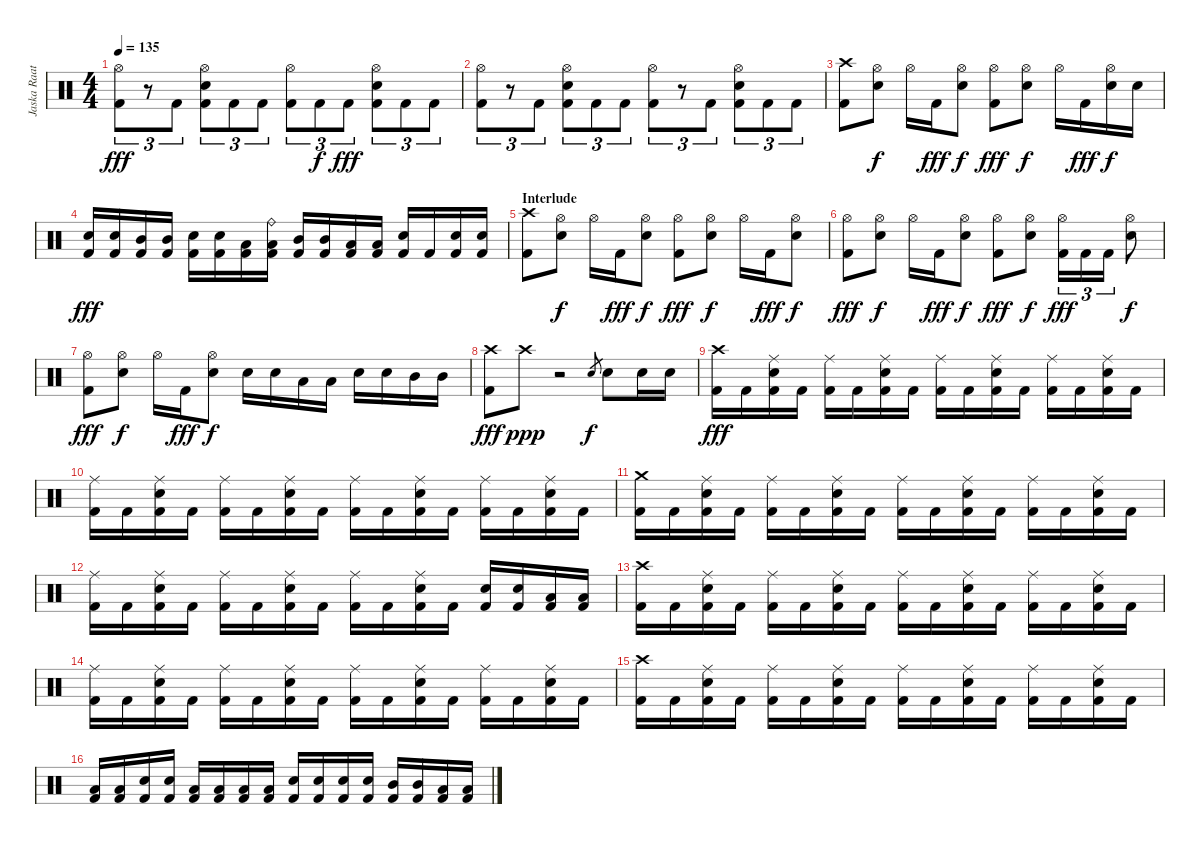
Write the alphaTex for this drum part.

\track ("Jaska Raatikainen" "Jaska Raat") {instrument percussion}
\staff {score}
\articulation defaults
\ts (4 4)
\tempo 135
\clef neutral
\ks c
("Hi-Hat (open)" "Kick (hit) 2").8{tu (3 2) dy fff} r.8{tu (3 2)} "Kick (hit) 2".8{tu (3 2)} ("Hi-Hat (open)" "Electric Snare (hit)" "Kick (hit) 2").8{tu (3 2)} "Kick (hit) 2".8{tu (3 2)} "Kick (hit) 2".8{tu (3 2)} ("Hi-Hat (open)" "Kick (hit) 2").8{tu (3 2)} "Kick (hit) 2".8{tu (3 2) dy f} "Kick (hit) 2".8{tu (3 2) dy fff} ("Hi-Hat (open)" "Electric Snare (hit)" "Kick (hit) 2").8{tu (3 2)} "Kick (hit) 2".8{tu (3 2)} "Kick (hit) 2".8{tu (3 2)} |
("Hi-Hat (open)" "Kick (hit) 2").8{tu (3 2)} r.8{tu (3 2)} "Kick (hit) 2".8{tu (3 2)} ("Hi-Hat (open)" "Electric Snare (hit)" "Kick (hit) 2").8{tu (3 2)} "Kick (hit) 2".8{tu (3 2)} "Kick (hit) 2".8{tu (3 2)} ("Hi-Hat (open)" "Kick (hit) 2").8{tu (3 2)} r.8{tu (3 2)} "Kick (hit) 2".8{tu (3 2)} ("Hi-Hat (open)" "Electric Snare (hit)" "Kick (hit) 2").8{tu (3 2)} "Kick (hit) 2".8{tu (3 2)} "Kick (hit) 2".8{tu (3 2)} |
("Crash high (hit)" "Kick (hit) 2").8 ("Hi-Hat (open)" "Electric Snare (hit)").8{dy f} "Hi-Hat (open)".16 "Kick (hit) 2".16{dy fff} ("Hi-Hat (open)" "Electric Snare (hit)").8{dy f} ("Hi-Hat (open)" "Kick (hit) 2").8{dy fff} ("Hi-Hat (open)" "Electric Snare (hit)").8{dy f} "Hi-Hat (open)".16 "Kick (hit) 2".16{dy fff} ("Hi-Hat (open)" "Electric Snare (hit)").16{dy f} "Electric Snare (hit)".16 |
("Electric Snare (hit)" "Kick (hit) 2").16{dy fff} ("Electric Snare (hit)" "Kick (hit) 2").16 ("Mid Tom (hit)" "Kick (hit) 2").16 ("Mid Tom (hit)" "Kick (hit) 2").16 ("Electric Snare (hit)" "Kick (hit) 2").16 ("Electric Snare (hit)" "Kick (hit) 2").16 ("Low Tom (hit)" "Kick (hit) 2").16 ("Ride (bell)" "Low Tom (hit)" "Kick (hit) 2").16 ("Mid Tom (hit)" "Kick (hit) 2").16 ("Mid Tom (hit)" "Kick (hit) 2").16 ("Low Tom (hit)" "Kick (hit) 2").16 ("Low Tom (hit)" "Kick (hit) 2").16 ("Electric Snare (hit)" "Kick (hit) 2").16 "Kick (hit) 2".16 ("Electric Snare (hit)" "Kick (hit) 2").16 ("Electric Snare (hit)" "Kick (hit) 2").16 |
\section ("" "Interlude")
("Crash high (hit)" "Kick (hit) 2").8 ("Hi-Hat (open)" "Electric Snare (hit)").8{dy f} "Hi-Hat (open)".16 "Kick (hit) 2".16{dy fff} ("Hi-Hat (open)" "Electric Snare (hit)").8{dy f} ("Hi-Hat (open)" "Kick (hit) 2").8{dy fff} ("Hi-Hat (open)" "Electric Snare (hit)").8{dy f} "Hi-Hat (open)".16 "Kick (hit) 2".16{dy fff} ("Hi-Hat (open)" "Electric Snare (hit)").8{dy f} |
("Hi-Hat (open)" "Kick (hit) 2").8{dy fff} ("Hi-Hat (open)" "Electric Snare (hit)").8{dy f} "Hi-Hat (open)".16 "Kick (hit) 2".16{dy fff} ("Hi-Hat (open)" "Electric Snare (hit)").8{dy f} ("Hi-Hat (open)" "Kick (hit) 2").8{dy fff} ("Hi-Hat (open)" "Electric Snare (hit)").8{dy f} ("Hi-Hat (open)" "Kick (hit) 2").16{tu (3 2) dy fff} "Kick (hit) 2".16{tu (3 2)} "Kick (hit) 2".16{tu (3 2)} ("Hi-Hat (open)" "Electric Snare (hit)").8{dy f} |
("Hi-Hat (open)" "Kick (hit) 2").8{dy fff} ("Hi-Hat (open)" "Electric Snare (hit)").8{dy f} "Hi-Hat (open)".16 "Kick (hit) 2".16{dy fff} ("Hi-Hat (open)" "Electric Snare (hit)").8{dy f} "Electric Snare (hit)".16 "Electric Snare (hit)".16 "Low Tom (hit)".16 "Low Tom (hit)".16 "Electric Snare (hit)".16 "Electric Snare (hit)".16 "Mid Tom (hit)".16 "Mid Tom (hit)".16 |
("Crash high (hit)" "Kick (hit) 2").8{dy fff} "Crash high (hit)".8{dy ppp} r.2 "Electric Snare (hit)".8{gr dy f} "Electric Snare (hit)".8 "Electric Snare (hit)".16 "Electric Snare (hit)".16 |
("Crash high (hit)" "Kick (hit) 2").16{dy fff} "Kick (hit) 2".16 ("Ride (middle)" "Electric Snare (hit)" "Kick (hit) 2").16 "Kick (hit) 2".16 ("Ride (middle)" "Kick (hit) 2").16 "Kick (hit) 2".16 ("Ride (middle)" "Electric Snare (hit)" "Kick (hit) 2").16 "Kick (hit) 2".16 ("Ride (middle)" "Kick (hit) 2").16 "Kick (hit) 2".16 ("Ride (middle)" "Electric Snare (hit)" "Kick (hit) 2").16 "Kick (hit) 2".16 ("Ride (middle)" "Kick (hit) 2").16 "Kick (hit) 2".16 ("Ride (middle)" "Electric Snare (hit)" "Kick (hit) 2").16 "Kick (hit) 2".16 |
("Ride (middle)" "Kick (hit) 2").16 "Kick (hit) 2".16 ("Ride (middle)" "Electric Snare (hit)" "Kick (hit) 2").16 "Kick (hit) 2".16 ("Ride (middle)" "Kick (hit) 2").16 "Kick (hit) 2".16 ("Ride (middle)" "Electric Snare (hit)" "Kick (hit) 2").16 "Kick (hit) 2".16 ("Ride (middle)" "Kick (hit) 2").16 "Kick (hit) 2".16 ("Ride (middle)" "Electric Snare (hit)" "Kick (hit) 2").16 "Kick (hit) 2".16 ("Ride (middle)" "Kick (hit) 2").16 "Kick (hit) 2".16 ("Ride (middle)" "Electric Snare (hit)" "Kick (hit) 2").16 "Kick (hit) 2".16 |
("Crash medium (hit)" "Kick (hit) 2").16 "Kick (hit) 2".16 ("Ride (middle)" "Electric Snare (hit)" "Kick (hit) 2").16 "Kick (hit) 2".16 ("Ride (middle)" "Kick (hit) 2").16 "Kick (hit) 2".16 ("Ride (middle)" "Electric Snare (hit)" "Kick (hit) 2").16 "Kick (hit) 2".16 ("Ride (middle)" "Kick (hit) 2").16 "Kick (hit) 2".16 ("Ride (middle)" "Electric Snare (hit)" "Kick (hit) 2").16 "Kick (hit) 2".16 ("Ride (middle)" "Kick (hit) 2").16 "Kick (hit) 2".16 ("Ride (middle)" "Electric Snare (hit)" "Kick (hit) 2").16 "Kick (hit) 2".16 |
("Ride (middle)" "Kick (hit) 2").16 "Kick (hit) 2".16 ("Ride (middle)" "Electric Snare (hit)" "Kick (hit) 2").16 "Kick (hit) 2".16 ("Ride (middle)" "Kick (hit) 2").16 "Kick (hit) 2".16 ("Ride (middle)" "Electric Snare (hit)" "Kick (hit) 2").16 "Kick (hit) 2".16 ("Ride (middle)" "Kick (hit) 2").16 "Kick (hit) 2".16 ("Ride (middle)" "Electric Snare (hit)" "Kick (hit) 2").16 "Kick (hit) 2".16 ("Electric Snare (hit)" "Kick (hit) 2").16 ("Electric Snare (hit)" "Kick (hit) 2").16 ("Low Tom (hit)" "Kick (hit) 2").16 ("Low Tom (hit)" "Kick (hit) 2").16 |
("Crash high (hit)" "Kick (hit) 2").16 "Kick (hit) 2".16 ("Ride (middle)" "Electric Snare (hit)" "Kick (hit) 2").16 "Kick (hit) 2".16 ("Ride (middle)" "Kick (hit) 2").16 "Kick (hit) 2".16 ("Ride (middle)" "Electric Snare (hit)" "Kick (hit) 2").16 "Kick (hit) 2".16 ("Ride (middle)" "Kick (hit) 2").16 "Kick (hit) 2".16 ("Ride (middle)" "Electric Snare (hit)" "Kick (hit) 2").16 "Kick (hit) 2".16 ("Ride (middle)" "Kick (hit) 2").16 "Kick (hit) 2".16 ("Ride (middle)" "Electric Snare (hit)" "Kick (hit) 2").16 "Kick (hit) 2".16 |
("Ride (middle)" "Kick (hit) 2").16 "Kick (hit) 2".16 ("Ride (middle)" "Electric Snare (hit)" "Kick (hit) 2").16 "Kick (hit) 2".16 ("Ride (middle)" "Kick (hit) 2").16 "Kick (hit) 2".16 ("Ride (middle)" "Electric Snare (hit)" "Kick (hit) 2").16 "Kick (hit) 2".16 ("Ride (middle)" "Kick (hit) 2").16 "Kick (hit) 2".16 ("Ride (middle)" "Electric Snare (hit)" "Kick (hit) 2").16 "Kick (hit) 2".16 ("Ride (middle)" "Kick (hit) 2").16 "Kick (hit) 2".16 ("Ride (middle)" "Electric Snare (hit)" "Kick (hit) 2").16 "Kick (hit) 2".16 |
("Crash high (hit)" "Kick (hit) 2").16 "Kick (hit) 2".16 ("Ride (middle)" "Electric Snare (hit)" "Kick (hit) 2").16 "Kick (hit) 2".16 ("Ride (middle)" "Kick (hit) 2").16 "Kick (hit) 2".16 ("Ride (middle)" "Electric Snare (hit)" "Kick (hit) 2").16 "Kick (hit) 2".16 ("Ride (middle)" "Kick (hit) 2").16 "Kick (hit) 2".16 ("Ride (middle)" "Electric Snare (hit)" "Kick (hit) 2").16 "Kick (hit) 2".16 ("Ride (middle)" "Kick (hit) 2").16 "Kick (hit) 2".16 ("Ride (middle)" "Electric Snare (hit)" "Kick (hit) 2").16 "Kick (hit) 2".16 |
("Low Tom (hit)" "Kick (hit) 2").16 ("Low Tom (hit)" "Kick (hit) 2").16 ("Electric Snare (hit)" "Kick (hit) 2").16 ("Electric Snare (hit)" "Kick (hit) 2").16 ("Low Tom (hit)" "Kick (hit) 2").16 ("Low Tom (hit)" "Kick (hit) 2").16 ("Low Tom (hit)" "Kick (hit) 2").16 ("Low Tom (hit)" "Kick (hit) 2").16 ("Electric Snare (hit)" "Kick (hit) 2").16 ("Electric Snare (hit)" "Kick (hit) 2").16 ("Electric Snare (hit)" "Kick (hit) 2").16 ("Electric Snare (hit)" "Kick (hit) 2").16 ("Mid Tom (hit)" "Kick (hit) 2").16 ("Mid Tom (hit)" "Kick (hit) 2").16 ("Low Tom (hit)" "Kick (hit) 2").16 ("Low Tom (hit)" "Kick (hit) 2").16
